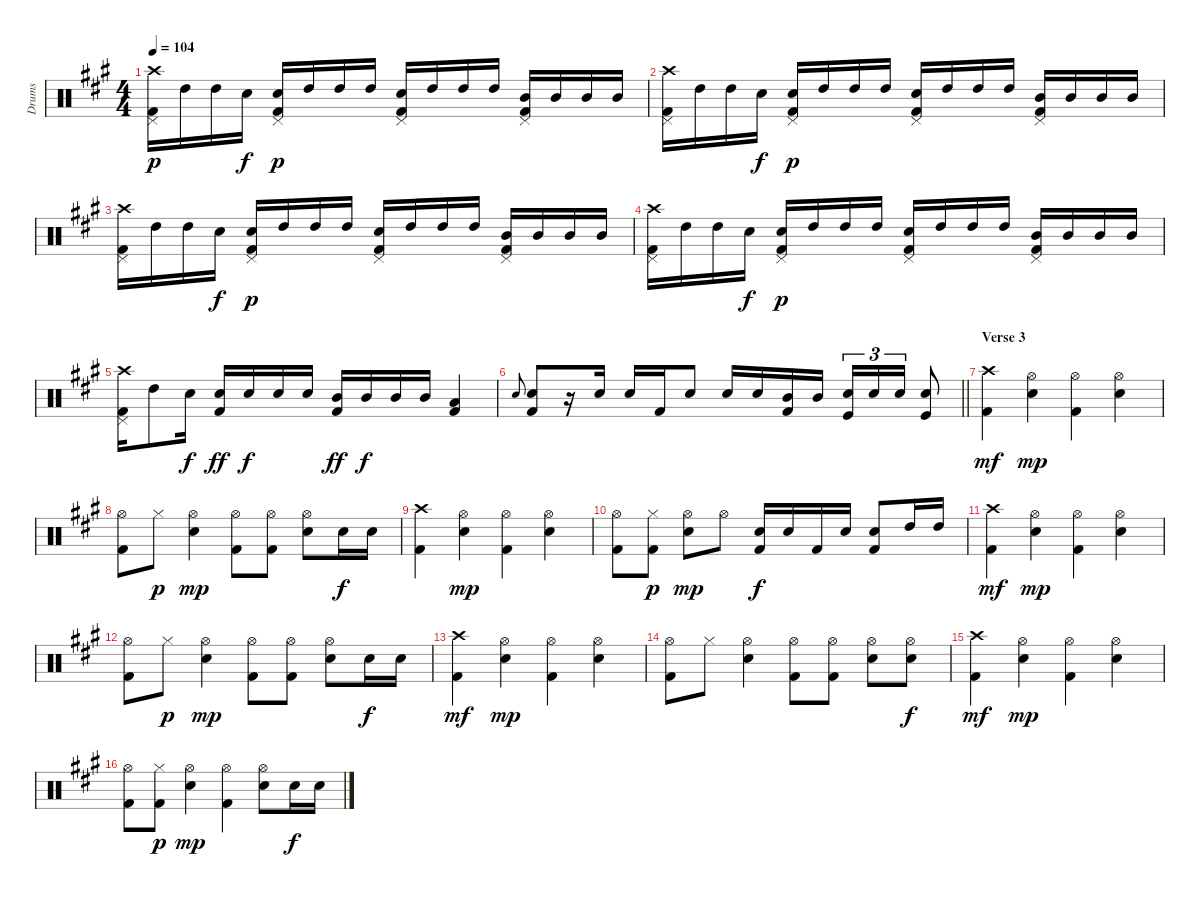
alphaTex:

\track ("Drums" "Drums") {instrument percussion}
\staff {score}
\articulation defaults
\ts (4 4)
\tempo 104
\clef neutral
\ks a
("Crash high (hit)" "Kick (hit) 2" "Pedal Hi-Hat (hit)").16{dy p} "High Tom (hit)".16 "High Tom (hit)".16 "Electric Snare (hit)".16{dy f} ("Electric Snare (hit)" "Kick (hit) 2" "Pedal Hi-Hat (hit)").16{dy p} "High Tom (hit)".16 "High Tom (hit)".16 "High Tom (hit)".16 ("Electric Snare (hit)" "Kick (hit) 2" "Pedal Hi-Hat (hit)").16 "High Tom (hit)".16 "High Tom (hit)".16 "High Tom (hit)".16 ("Mid Tom (hit)" "Kick (hit) 2" "Pedal Hi-Hat (hit)").16 "Mid Tom (hit)".16 "Mid Tom (hit)".16 "Mid Tom (hit)".16 |
("Crash high (hit)" "Kick (hit) 2" "Pedal Hi-Hat (hit)").16 "High Tom (hit)".16 "High Tom (hit)".16 "Electric Snare (hit)".16{dy f} ("Electric Snare (hit)" "Kick (hit) 2" "Pedal Hi-Hat (hit)").16{dy p} "High Tom (hit)".16 "High Tom (hit)".16 "High Tom (hit)".16 ("Electric Snare (hit)" "Kick (hit) 2" "Pedal Hi-Hat (hit)").16 "High Tom (hit)".16 "High Tom (hit)".16 "High Tom (hit)".16 ("Mid Tom (hit)" "Kick (hit) 2" "Pedal Hi-Hat (hit)").16 "Mid Tom (hit)".16 "Mid Tom (hit)".16 "Mid Tom (hit)".16 |
("Crash high (hit)" "Kick (hit) 2" "Pedal Hi-Hat (hit)").16 "High Tom (hit)".16 "High Tom (hit)".16 "Electric Snare (hit)".16{dy f} ("Electric Snare (hit)" "Kick (hit) 2" "Pedal Hi-Hat (hit)").16{dy p} "High Tom (hit)".16 "High Tom (hit)".16 "High Tom (hit)".16 ("Electric Snare (hit)" "Kick (hit) 2" "Pedal Hi-Hat (hit)").16 "High Tom (hit)".16 "High Tom (hit)".16 "High Tom (hit)".16 ("Mid Tom (hit)" "Kick (hit) 2" "Pedal Hi-Hat (hit)").16 "Mid Tom (hit)".16 "Mid Tom (hit)".16 "Mid Tom (hit)".16 |
("Crash high (hit)" "Kick (hit) 2" "Pedal Hi-Hat (hit)").16 "High Tom (hit)".16 "High Tom (hit)".16 "Electric Snare (hit)".16{dy f} ("Electric Snare (hit)" "Kick (hit) 2" "Pedal Hi-Hat (hit)").16{dy p} "High Tom (hit)".16 "High Tom (hit)".16 "High Tom (hit)".16 ("Electric Snare (hit)" "Kick (hit) 2" "Pedal Hi-Hat (hit)").16 "High Tom (hit)".16 "High Tom (hit)".16 "High Tom (hit)".16 ("Mid Tom (hit)" "Kick (hit) 2" "Pedal Hi-Hat (hit)").16 "Mid Tom (hit)".16 "Mid Tom (hit)".16 "Mid Tom (hit)".16 |
("Crash high (hit)" "Kick (hit) 2" "Pedal Hi-Hat (hit)").16 "High Tom (hit)".8 "Electric Snare (hit)".16{dy f} ("Electric Snare (hit)" "Kick (hit) 2").16{dy ff} "Electric Snare (hit)".16{dy f} "Electric Snare (hit)".16 "Electric Snare (hit)".16 ("Mid Tom (hit)" "Kick (hit) 2").16{dy ff} "Mid Tom (hit)".16{dy f} "Mid Tom (hit)".16 "Mid Tom (hit)".16 ("Low Tom (hit)" "Kick (hit) 2").4 |
\barLineRight lightlight "Electric Snare (hit)".8{gr onbeat}
("Electric Snare (hit)" "Kick (hit) 2").8 r.16 "Electric Snare (hit)".16 "Electric Snare (hit)".16 "Kick (hit) 2".16 "Electric Snare (hit)".8 "Electric Snare (hit)".16 "Electric Snare (hit)".16 ("Mid Tom (hit)" "Kick (hit) 2").16 "Mid Tom (hit)".16 ("Electric Snare (hit)" "Kick (hit)").16{tu (3 2)} "Electric Snare (hit)".16{tu (3 2)} "Electric Snare (hit)".16{tu (3 2)} ("Electric Snare (hit)" "Kick (hit)").8 |
\section ("" "Verse 3")
("Kick (hit) 2" "Crash high (hit)").4{dy mf} ("Hi-Hat (open)" "Electric Snare (hit)").4{dy mp} ("Hi-Hat (open)" "Kick (hit) 2").4 ("Hi-Hat (open)" "Electric Snare (hit)").4 |
("Hi-Hat (open)" "Kick (hit) 2").8 "Hi-Hat (closed)".8{dy p} ("Hi-Hat (open)" "Electric Snare (hit)").4{dy mp} ("Hi-Hat (open)" "Kick (hit) 2").8 ("Hi-Hat (open)" "Kick (hit) 2").8 ("Electric Snare (hit)" "Hi-Hat (open)").8 "Electric Snare (hit)".16{dy f} "Electric Snare (hit)".16 |
("Kick (hit) 2" "Crash high (hit)").4 ("Hi-Hat (open)" "Electric Snare (hit)").4{dy mp} ("Hi-Hat (open)" "Kick (hit) 2").4 ("Hi-Hat (open)" "Electric Snare (hit)").4 |
("Hi-Hat (open)" "Kick (hit) 2").8 ("Hi-Hat (closed)" "Kick (hit) 2").8{dy p} ("Hi-Hat (open)" "Electric Snare (hit)").8{dy mp} "Hi-Hat (open)".8 ("Kick (hit) 2" "Electric Snare (hit)").16{dy f} "Electric Snare (hit)".16 "Kick (hit) 2".16 "Electric Snare (hit)".16 ("Electric Snare (hit)" "Kick (hit) 2").8 "High Tom (hit)".16 "High Tom (hit)".16 |
("Kick (hit) 2" "Crash high (hit)").4{dy mf} ("Hi-Hat (open)" "Electric Snare (hit)").4{dy mp} ("Hi-Hat (open)" "Kick (hit) 2").4 ("Hi-Hat (open)" "Electric Snare (hit)").4 |
("Hi-Hat (open)" "Kick (hit) 2").8 "Hi-Hat (closed)".8{dy p} ("Hi-Hat (open)" "Electric Snare (hit)").4{dy mp} ("Hi-Hat (open)" "Kick (hit) 2").8 ("Hi-Hat (open)" "Kick (hit) 2").8 ("Electric Snare (hit)" "Hi-Hat (open)").8 "Electric Snare (hit)".16{dy f} "Electric Snare (hit)".16 |
("Kick (hit) 2" "Crash high (hit)").4{dy mf} ("Hi-Hat (open)" "Electric Snare (hit)").4{dy mp} ("Hi-Hat (open)" "Kick (hit) 2").4 ("Hi-Hat (open)" "Electric Snare (hit)").4 |
("Hi-Hat (open)" "Kick (hit) 2").8 "Hi-Hat (closed)".8 ("Hi-Hat (open)" "Electric Snare (hit)").4 ("Hi-Hat (open)" "Kick (hit) 2").8 ("Hi-Hat (open)" "Kick (hit) 2").8 ("Electric Snare (hit)" "Hi-Hat (open)").8 ("Electric Snare (hit)" "Hi-Hat (open)").8{dy f} |
("Kick (hit) 2" "Crash high (hit)").4{dy mf} ("Hi-Hat (open)" "Electric Snare (hit)").4{dy mp} ("Hi-Hat (open)" "Kick (hit) 2").4 ("Hi-Hat (open)" "Electric Snare (hit)").4 |
("Hi-Hat (open)" "Kick (hit) 2").8 ("Hi-Hat (closed)" "Kick (hit) 2").8{dy p} ("Hi-Hat (open)" "Electric Snare (hit)").4{dy mp} ("Hi-Hat (open)" "Kick (hit) 2").4 ("Electric Snare (hit)" "Hi-Hat (open)").8 "Electric Snare (hit)".16{dy f} "Electric Snare (hit)".16
